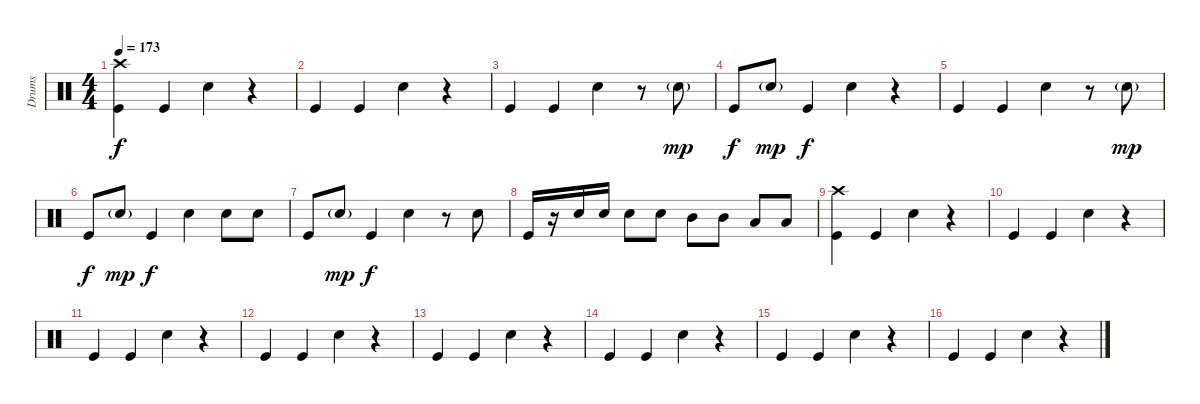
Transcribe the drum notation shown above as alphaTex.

\track ("Drums" "Drums") {instrument percussion}
\staff {score}
\articulation defaults
\ts (4 4)
\tempo 173
\clef neutral
\ks c
("Kick (hit)" "Crash high (hit)").4{dy f} "Kick (hit)".4 "Snare (hit) 2".4 r.4 |
"Kick (hit)".4 "Kick (hit)".4 "Snare (hit) 2".4 r.4 |
"Kick (hit)".4 "Kick (hit)".4 "Snare (hit) 2".4 r.8 "Snare (hit) 2"{g}.8{dy mp} |
"Kick (hit)".8{dy f} "Snare (hit) 2"{g}.8{dy mp} "Kick (hit)".4{dy f} "Snare (hit) 2".4 r.4 |
"Kick (hit)".4 "Kick (hit)".4 "Snare (hit) 2".4 r.8 "Snare (hit) 2"{g}.8{dy mp} |
"Kick (hit)".8{dy f} "Snare (hit) 2"{g}.8{dy mp} "Kick (hit)".4{dy f} "Snare (hit) 2".4 "Snare (hit) 2".8 "Snare (hit) 2".8 |
"Kick (hit)".8 "Snare (hit) 2"{g}.8{dy mp} "Kick (hit)".4{dy f} "Snare (hit) 2".4 r.8 "Snare (hit) 2".8 |
"Kick (hit)".16 r.16 "Snare (hit) 2".16 "Snare (hit) 2".16 "Snare (hit) 2".8 "Snare (hit) 2".8 "Mid Tom (hit)".8 "Mid Tom (hit)".8 "Low Tom (hit)".8 "Low Tom (hit)".8 |
("Kick (hit)" "Crash high (hit)").4 "Kick (hit)".4 "Snare (hit) 2".4 r.4 |
"Kick (hit)".4 "Kick (hit)".4 "Snare (hit) 2".4 r.4 |
"Kick (hit)".4 "Kick (hit)".4 "Snare (hit) 2".4 r.4 |
"Kick (hit)".4 "Kick (hit)".4 "Snare (hit) 2".4 r.4 |
"Kick (hit)".4 "Kick (hit)".4 "Snare (hit) 2".4 r.4 |
"Kick (hit)".4 "Kick (hit)".4 "Snare (hit) 2".4 r.4 |
"Kick (hit)".4 "Kick (hit)".4 "Snare (hit) 2".4 r.4 |
"Kick (hit)".4 "Kick (hit)".4 "Snare (hit) 2".4 r.4
